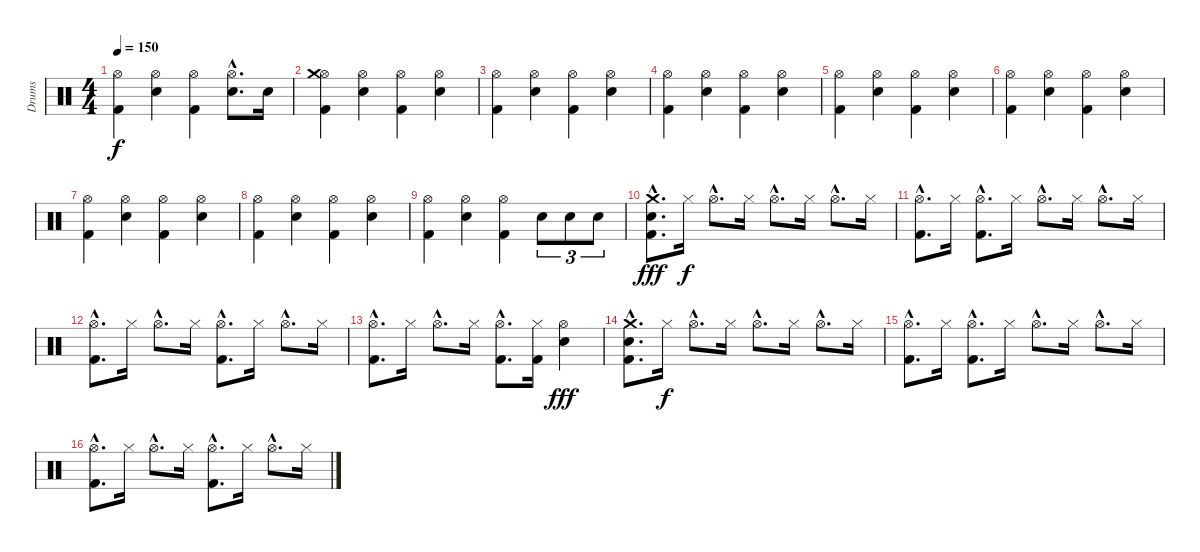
\track ("Drums" "Drums") {instrument percussion}
\staff {score}
\articulation defaults
\ts (4 4)
\tempo 150
\clef neutral
\ks c
("Hi-Hat (open)" "Kick (hit) 2").4{dy f} ("Hi-Hat (open)" "Snare (hit) 2").4 ("Hi-Hat (open)" "Kick (hit) 2").4 ("Hi-Hat (open)"{hac} "Snare (hit) 2"{hac}).8{d} "Snare (hit) 2".16 |
("Hi-Hat (open)" "Crash medium (hit)" "Kick (hit) 2").4 ("Hi-Hat (open)" "Snare (hit) 2").4 ("Hi-Hat (open)" "Kick (hit) 2").4 ("Hi-Hat (open)" "Snare (hit) 2").4 |
("Hi-Hat (open)" "Kick (hit) 2").4 ("Hi-Hat (open)" "Snare (hit) 2").4 ("Hi-Hat (open)" "Kick (hit) 2").4 ("Hi-Hat (open)" "Snare (hit) 2").4 |
("Hi-Hat (open)" "Kick (hit) 2").4 ("Hi-Hat (open)" "Snare (hit) 2").4 ("Hi-Hat (open)" "Kick (hit) 2").4 ("Hi-Hat (open)" "Snare (hit) 2").4 |
("Hi-Hat (open)" "Kick (hit) 2").4 ("Hi-Hat (open)" "Snare (hit) 2").4 ("Hi-Hat (open)" "Kick (hit) 2").4 ("Hi-Hat (open)" "Snare (hit) 2").4 |
("Hi-Hat (open)" "Kick (hit) 2").4 ("Hi-Hat (open)" "Snare (hit) 2").4 ("Hi-Hat (open)" "Kick (hit) 2").4 ("Hi-Hat (open)" "Snare (hit) 2").4 |
("Hi-Hat (open)" "Kick (hit) 2").4 ("Hi-Hat (open)" "Snare (hit) 2").4 ("Hi-Hat (open)" "Kick (hit) 2").4 ("Hi-Hat (open)" "Snare (hit) 2").4 |
("Hi-Hat (open)" "Kick (hit) 2").4 ("Hi-Hat (open)" "Snare (hit) 2").4 ("Hi-Hat (open)" "Kick (hit) 2").4 ("Hi-Hat (open)" "Snare (hit) 2").4 |
("Hi-Hat (open)" "Kick (hit) 2").4 ("Hi-Hat (open)" "Snare (hit) 2").4 ("Hi-Hat (open)" "Kick (hit) 2").4 "Snare (hit) 2".8{tu (3 2)} "Snare (hit) 2".8{tu (3 2)} "Snare (hit) 2".8{tu (3 2)} |
("Crash medium (hit)"{hac} "Snare (hit) 2"{hac} "Kick (hit) 2"{hac}).8{d dy fff volume 9} "Hi-Hat (closed)".16{dy f} "Hi-Hat (open)"{hac}.8{d} "Hi-Hat (closed)".16 "Hi-Hat (open)"{hac}.8{d} "Hi-Hat (closed)".16 "Hi-Hat (open)"{hac}.8{d} "Hi-Hat (closed)".16 |
("Hi-Hat (open)"{hac} "Kick (hit) 2"{hac}).8{d volume 9} "Hi-Hat (closed)".16 ("Hi-Hat (open)"{hac} "Kick (hit) 2"{hac}).8{d} "Hi-Hat (closed)".16 "Hi-Hat (open)"{hac}.8{d} "Hi-Hat (closed)".16 "Hi-Hat (open)"{hac}.8{d} "Hi-Hat (closed)".16 |
("Hi-Hat (open)"{hac} "Kick (hit) 2"{hac}).8{d volume 9} "Hi-Hat (closed)".16 "Hi-Hat (open)"{hac}.8{d} "Hi-Hat (closed)".16 ("Hi-Hat (open)"{hac} "Kick (hit) 2"{hac}).8{d} "Hi-Hat (closed)".16 "Hi-Hat (open)"{hac}.8{d} "Hi-Hat (closed)".16 |
("Hi-Hat (open)"{hac} "Kick (hit) 2"{hac}).8{d volume 9} "Hi-Hat (closed)".16 "Hi-Hat (open)"{hac}.8{d} "Hi-Hat (closed)".16 ("Hi-Hat (open)"{hac} "Kick (hit) 2"{hac}).8{d} ("Hi-Hat (closed)" "Kick (hit) 2").16 ("Hi-Hat (open)" "Snare (hit) 2").4{dy fff} |
("Crash medium (hit)"{hac} "Snare (hit) 2"{hac} "Kick (hit) 2"{hac}).8{d volume 9} "Hi-Hat (closed)".16{dy f} "Hi-Hat (open)"{hac}.8{d} "Hi-Hat (closed)".16 "Hi-Hat (open)"{hac}.8{d} "Hi-Hat (closed)".16 "Hi-Hat (open)"{hac}.8{d} "Hi-Hat (closed)".16 |
("Hi-Hat (open)"{hac} "Kick (hit) 2"{hac}).8{d volume 9} "Hi-Hat (closed)".16 ("Hi-Hat (open)"{hac} "Kick (hit) 2"{hac}).8{d} "Hi-Hat (closed)".16 "Hi-Hat (open)"{hac}.8{d} "Hi-Hat (closed)".16 "Hi-Hat (open)"{hac}.8{d} "Hi-Hat (closed)".16 |
("Hi-Hat (open)"{hac} "Kick (hit) 2"{hac}).8{d volume 9} "Hi-Hat (closed)".16 "Hi-Hat (open)"{hac}.8{d} "Hi-Hat (closed)".16 ("Hi-Hat (open)"{hac} "Kick (hit) 2"{hac}).8{d} "Hi-Hat (closed)".16 "Hi-Hat (open)"{hac}.8{d} "Hi-Hat (closed)".16
